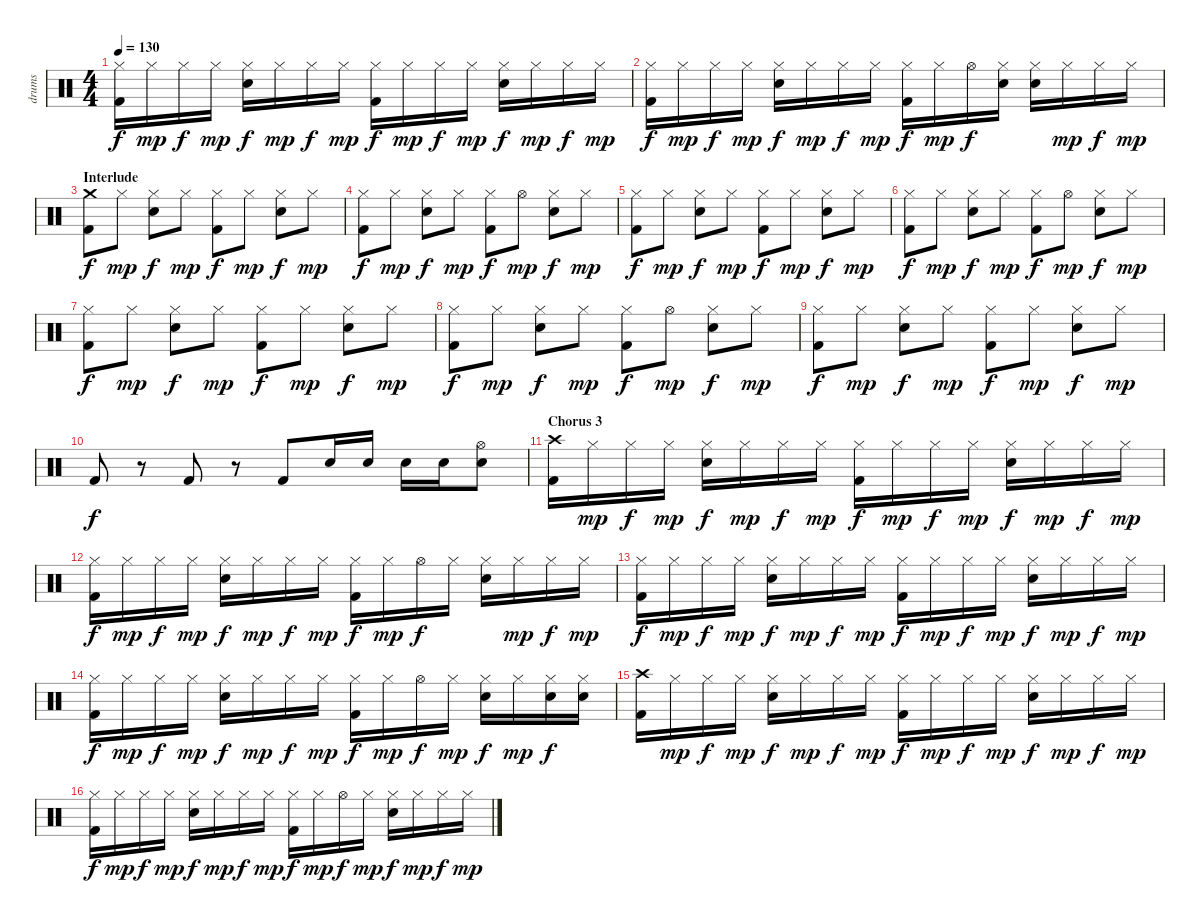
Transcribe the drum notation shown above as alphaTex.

\track ("drums" "drums") {instrument percussion}
\staff {score}
\articulation defaults
\ts (4 4)
\tempo 130
\clef neutral
\ks c
("Hi-Hat (closed)" "Kick (hit) 2").16{dy f} "Hi-Hat (closed)".16{dy mp} "Hi-Hat (closed)".16{dy f} "Hi-Hat (closed)".16{dy mp} ("Hi-Hat (closed)" "Electric Snare (hit)").16{dy f} "Hi-Hat (closed)".16{dy mp} "Hi-Hat (closed)".16{dy f} "Hi-Hat (closed)".16{dy mp} ("Hi-Hat (closed)" "Kick (hit) 2").16{dy f} "Hi-Hat (closed)".16{dy mp} "Hi-Hat (closed)".16{dy f} "Hi-Hat (closed)".16{dy mp} ("Hi-Hat (closed)" "Electric Snare (hit)").16{dy f} "Hi-Hat (closed)".16{dy mp} "Hi-Hat (closed)".16{dy f} "Hi-Hat (closed)".16{dy mp} |
("Hi-Hat (closed)" "Kick (hit) 2").16{dy f} "Hi-Hat (closed)".16{dy mp} "Hi-Hat (closed)".16{dy f} "Hi-Hat (closed)".16{dy mp} ("Hi-Hat (closed)" "Electric Snare (hit)").16{dy f} "Hi-Hat (closed)".16{dy mp} "Hi-Hat (closed)".16{dy f} "Hi-Hat (closed)".16{dy mp} ("Hi-Hat (closed)" "Kick (hit) 2").16{dy f} "Hi-Hat (closed)".16{dy mp} "Hi-Hat (open)".16{dy f} ("Hi-Hat (closed)" "Electric Snare (hit)").16 ("Hi-Hat (closed)" "Electric Snare (hit)").16 "Hi-Hat (closed)".16{dy mp} "Hi-Hat (closed)".16{dy f} "Hi-Hat (closed)".16{dy mp} |
\section ("" "Interlude")
("Crash medium (hit)" "Kick (hit) 2").8{dy f} "Hi-Hat (closed)".8{dy mp} ("Hi-Hat (closed)" "Electric Snare (hit)").8{dy f} "Hi-Hat (closed)".8{dy mp} ("Hi-Hat (closed)" "Kick (hit) 2").8{dy f} "Hi-Hat (closed)".8{dy mp} ("Hi-Hat (closed)" "Electric Snare (hit)").8{dy f} "Hi-Hat (closed)".8{dy mp} |
("Hi-Hat (closed)" "Kick (hit) 2").8{dy f} "Hi-Hat (closed)".8{dy mp} ("Hi-Hat (closed)" "Electric Snare (hit)").8{dy f} "Hi-Hat (closed)".8{dy mp} ("Hi-Hat (closed)" "Kick (hit) 2").8{dy f} "Hi-Hat (open)".8{dy mp} ("Hi-Hat (closed)" "Electric Snare (hit)").8{dy f} "Hi-Hat (closed)".8{dy mp} |
("Hi-Hat (closed)" "Kick (hit) 2").8{dy f} "Hi-Hat (closed)".8{dy mp} ("Hi-Hat (closed)" "Electric Snare (hit)").8{dy f} "Hi-Hat (closed)".8{dy mp} ("Hi-Hat (closed)" "Kick (hit) 2").8{dy f} "Hi-Hat (closed)".8{dy mp} ("Hi-Hat (closed)" "Electric Snare (hit)").8{dy f} "Hi-Hat (closed)".8{dy mp} |
("Hi-Hat (closed)" "Kick (hit) 2").8{dy f} "Hi-Hat (closed)".8{dy mp} ("Hi-Hat (closed)" "Electric Snare (hit)").8{dy f} "Hi-Hat (closed)".8{dy mp} ("Hi-Hat (closed)" "Kick (hit) 2").8{dy f} "Hi-Hat (open)".8{dy mp} ("Hi-Hat (closed)" "Electric Snare (hit)").8{dy f} "Hi-Hat (closed)".8{dy mp} |
("Hi-Hat (closed)" "Kick (hit) 2").8{dy f} "Hi-Hat (closed)".8{dy mp} ("Hi-Hat (closed)" "Electric Snare (hit)").8{dy f} "Hi-Hat (closed)".8{dy mp} ("Hi-Hat (closed)" "Kick (hit) 2").8{dy f} "Hi-Hat (closed)".8{dy mp} ("Hi-Hat (closed)" "Electric Snare (hit)").8{dy f} "Hi-Hat (closed)".8{dy mp} |
("Hi-Hat (closed)" "Kick (hit) 2").8{dy f} "Hi-Hat (closed)".8{dy mp} ("Hi-Hat (closed)" "Electric Snare (hit)").8{dy f} "Hi-Hat (closed)".8{dy mp} ("Hi-Hat (closed)" "Kick (hit) 2").8{dy f} "Hi-Hat (open)".8{dy mp} ("Hi-Hat (closed)" "Electric Snare (hit)").8{dy f} "Hi-Hat (closed)".8{dy mp} |
("Hi-Hat (closed)" "Kick (hit) 2").8{dy f} "Hi-Hat (closed)".8{dy mp} ("Hi-Hat (closed)" "Electric Snare (hit)").8{dy f} "Hi-Hat (closed)".8{dy mp} ("Hi-Hat (closed)" "Kick (hit) 2").8{dy f} "Hi-Hat (closed)".8{dy mp} ("Hi-Hat (closed)" "Electric Snare (hit)").8{dy f} "Hi-Hat (closed)".8{dy mp} |
"Kick (hit) 2".8{dy f} r.8 "Kick (hit) 2".8 r.8 "Kick (hit) 2".8 "Electric Snare (hit)".16 "Electric Snare (hit)".16 "Electric Snare (hit)".16 "Electric Snare (hit)".16 ("Hi-Hat (open)" "Electric Snare (hit)").8 |
\section ("" "Chorus 3")
("Crash high (hit)" "Kick (hit) 2").16 "Hi-Hat (closed)".16{dy mp} "Hi-Hat (closed)".16{dy f} "Hi-Hat (closed)".16{dy mp} ("Hi-Hat (closed)" "Electric Snare (hit)").16{dy f} "Hi-Hat (closed)".16{dy mp} "Hi-Hat (closed)".16{dy f} "Hi-Hat (closed)".16{dy mp} ("Hi-Hat (closed)" "Kick (hit) 2").16{dy f} "Hi-Hat (closed)".16{dy mp} "Hi-Hat (closed)".16{dy f} "Hi-Hat (closed)".16{dy mp} ("Hi-Hat (closed)" "Electric Snare (hit)").16{dy f} "Hi-Hat (closed)".16{dy mp} "Hi-Hat (closed)".16{dy f} "Hi-Hat (closed)".16{dy mp} |
("Hi-Hat (closed)" "Kick (hit) 2").16{dy f} "Hi-Hat (closed)".16{dy mp} "Hi-Hat (closed)".16{dy f} "Hi-Hat (closed)".16{dy mp} ("Hi-Hat (closed)" "Electric Snare (hit)").16{dy f} "Hi-Hat (closed)".16{dy mp} "Hi-Hat (closed)".16{dy f} "Hi-Hat (closed)".16{dy mp} ("Hi-Hat (closed)" "Kick (hit) 2").16{dy f} "Hi-Hat (closed)".16{dy mp} "Hi-Hat (open)".16{dy f} "Hi-Hat (closed)".16 ("Hi-Hat (closed)" "Electric Snare (hit)").16 "Hi-Hat (closed)".16{dy mp} "Hi-Hat (closed)".16{dy f} "Hi-Hat (closed)".16{dy mp} |
("Hi-Hat (closed)" "Kick (hit) 2").16{dy f} "Hi-Hat (closed)".16{dy mp} "Hi-Hat (closed)".16{dy f} "Hi-Hat (closed)".16{dy mp} ("Hi-Hat (closed)" "Electric Snare (hit)").16{dy f} "Hi-Hat (closed)".16{dy mp} "Hi-Hat (closed)".16{dy f} "Hi-Hat (closed)".16{dy mp} ("Hi-Hat (closed)" "Kick (hit) 2").16{dy f} "Hi-Hat (closed)".16{dy mp} "Hi-Hat (closed)".16{dy f} "Hi-Hat (closed)".16{dy mp} ("Hi-Hat (closed)" "Electric Snare (hit)").16{dy f} "Hi-Hat (closed)".16{dy mp} "Hi-Hat (closed)".16{dy f} "Hi-Hat (closed)".16{dy mp} |
("Hi-Hat (closed)" "Kick (hit) 2").16{dy f} "Hi-Hat (closed)".16{dy mp} "Hi-Hat (closed)".16{dy f} "Hi-Hat (closed)".16{dy mp} ("Hi-Hat (closed)" "Electric Snare (hit)").16{dy f} "Hi-Hat (closed)".16{dy mp} "Hi-Hat (closed)".16{dy f} "Hi-Hat (closed)".16{dy mp} ("Hi-Hat (closed)" "Kick (hit) 2").16{dy f} "Hi-Hat (closed)".16{dy mp} "Hi-Hat (open)".16{dy f} "Hi-Hat (closed)".16{dy mp} ("Hi-Hat (closed)" "Electric Snare (hit)").16{dy f} "Hi-Hat (closed)".16{dy mp} ("Hi-Hat (closed)" "Electric Snare (hit)").16{dy f} ("Hi-Hat (closed)" "Electric Snare (hit)").16 |
("Crash high (hit)" "Kick (hit) 2").16 "Hi-Hat (closed)".16{dy mp} "Hi-Hat (closed)".16{dy f} "Hi-Hat (closed)".16{dy mp} ("Hi-Hat (closed)" "Electric Snare (hit)").16{dy f} "Hi-Hat (closed)".16{dy mp} "Hi-Hat (closed)".16{dy f} "Hi-Hat (closed)".16{dy mp} ("Hi-Hat (closed)" "Kick (hit) 2").16{dy f} "Hi-Hat (closed)".16{dy mp} "Hi-Hat (closed)".16{dy f} "Hi-Hat (closed)".16{dy mp} ("Hi-Hat (closed)" "Electric Snare (hit)").16{dy f} "Hi-Hat (closed)".16{dy mp} "Hi-Hat (closed)".16{dy f} "Hi-Hat (closed)".16{dy mp} |
("Hi-Hat (closed)" "Kick (hit) 2").16{dy f} "Hi-Hat (closed)".16{dy mp} "Hi-Hat (closed)".16{dy f} "Hi-Hat (closed)".16{dy mp} ("Hi-Hat (closed)" "Electric Snare (hit)").16{dy f} "Hi-Hat (closed)".16{dy mp} "Hi-Hat (closed)".16{dy f} "Hi-Hat (closed)".16{dy mp} ("Hi-Hat (closed)" "Kick (hit) 2").16{dy f} "Hi-Hat (closed)".16{dy mp} "Hi-Hat (open)".16{dy f} "Hi-Hat (closed)".16{dy mp} ("Hi-Hat (closed)" "Electric Snare (hit)").16{dy f} "Hi-Hat (closed)".16{dy mp} "Hi-Hat (closed)".16{dy f} "Hi-Hat (closed)".16{dy mp}
